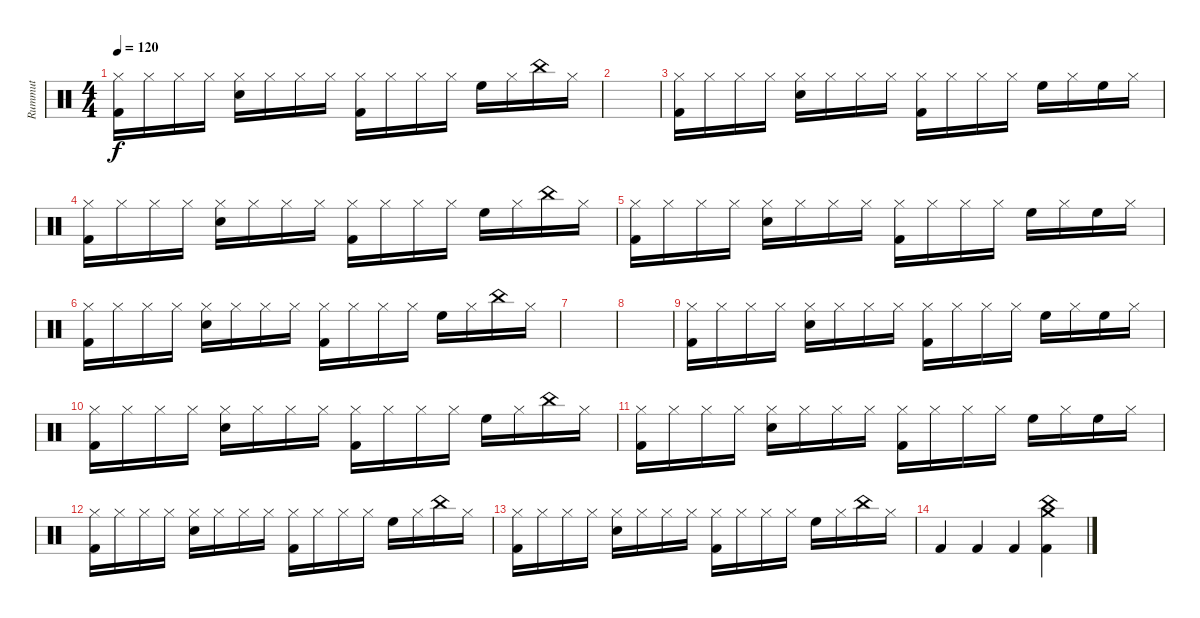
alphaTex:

\track ("Rummut" "Rummut") {instrument percussion}
\staff {score}
\articulation defaults
\ts (4 4)
\tempo 120
\clef neutral
\ks c
("Hi-Hat (closed)" "Kick (hit) 2").16{dy f} "Hi-Hat (closed)".16 "Hi-Hat (closed)".16 "Hi-Hat (closed)".16 ("Hi-Hat (closed)" "Snare (hit) 2").16 "Hi-Hat (closed)".16 "Hi-Hat (closed)".16 "Hi-Hat (closed)".16 ("Hi-Hat (closed)" "Kick (hit) 2").16 "Hi-Hat (closed)".16 "Hi-Hat (closed)".16 "Hi-Hat (closed)".16 "High Floor Tom (hit)".16 "Hi-Hat (closed)".16 "China (hit)".16 "Hi-Hat (closed)".16 |
|
("Hi-Hat (closed)" "Kick (hit) 2").16 "Hi-Hat (closed)".16 "Hi-Hat (closed)".16 "Hi-Hat (closed)".16 ("Hi-Hat (closed)" "Snare (hit) 2").16 "Hi-Hat (closed)".16 "Hi-Hat (closed)".16 "Hi-Hat (closed)".16 ("Hi-Hat (closed)" "Kick (hit) 2").16 "Hi-Hat (closed)".16 "Hi-Hat (closed)".16 "Hi-Hat (closed)".16 "High Floor Tom (hit)".16 "Hi-Hat (closed)".16 "High Floor Tom (hit)".16 "Hi-Hat (closed)".16 |
("Hi-Hat (closed)" "Kick (hit) 2").16 "Hi-Hat (closed)".16 "Hi-Hat (closed)".16 "Hi-Hat (closed)".16 ("Hi-Hat (closed)" "Snare (hit) 2").16 "Hi-Hat (closed)".16 "Hi-Hat (closed)".16 "Hi-Hat (closed)".16 ("Hi-Hat (closed)" "Kick (hit) 2").16 "Hi-Hat (closed)".16 "Hi-Hat (closed)".16 "Hi-Hat (closed)".16 "High Floor Tom (hit)".16 "Hi-Hat (closed)".16 "China (hit)".16 "Hi-Hat (closed)".16 |
("Hi-Hat (closed)" "Kick (hit) 2").16 "Hi-Hat (closed)".16 "Hi-Hat (closed)".16 "Hi-Hat (closed)".16 ("Hi-Hat (closed)" "Snare (hit) 2").16 "Hi-Hat (closed)".16 "Hi-Hat (closed)".16 "Hi-Hat (closed)".16 ("Hi-Hat (closed)" "Kick (hit) 2").16 "Hi-Hat (closed)".16 "Hi-Hat (closed)".16 "Hi-Hat (closed)".16 "High Floor Tom (hit)".16 "Hi-Hat (closed)".16 "High Floor Tom (hit)".16 "Hi-Hat (closed)".16 |
("Hi-Hat (closed)" "Kick (hit) 2").16 "Hi-Hat (closed)".16 "Hi-Hat (closed)".16 "Hi-Hat (closed)".16 ("Hi-Hat (closed)" "Snare (hit) 2").16 "Hi-Hat (closed)".16 "Hi-Hat (closed)".16 "Hi-Hat (closed)".16 ("Hi-Hat (closed)" "Kick (hit) 2").16 "Hi-Hat (closed)".16 "Hi-Hat (closed)".16 "Hi-Hat (closed)".16 "High Floor Tom (hit)".16 "Hi-Hat (closed)".16 "China (hit)".16 "Hi-Hat (closed)".16 |
|
|
("Hi-Hat (closed)" "Kick (hit) 2").16 "Hi-Hat (closed)".16 "Hi-Hat (closed)".16 "Hi-Hat (closed)".16 ("Hi-Hat (closed)" "Snare (hit) 2").16 "Hi-Hat (closed)".16 "Hi-Hat (closed)".16 "Hi-Hat (closed)".16 ("Hi-Hat (closed)" "Kick (hit) 2").16 "Hi-Hat (closed)".16 "Hi-Hat (closed)".16 "Hi-Hat (closed)".16 "High Floor Tom (hit)".16 "Hi-Hat (closed)".16 "High Floor Tom (hit)".16 "Hi-Hat (closed)".16 |
("Hi-Hat (closed)" "Kick (hit) 2").16 "Hi-Hat (closed)".16 "Hi-Hat (closed)".16 "Hi-Hat (closed)".16 ("Hi-Hat (closed)" "Snare (hit) 2").16 "Hi-Hat (closed)".16 "Hi-Hat (closed)".16 "Hi-Hat (closed)".16 ("Hi-Hat (closed)" "Kick (hit) 2").16 "Hi-Hat (closed)".16 "Hi-Hat (closed)".16 "Hi-Hat (closed)".16 "High Floor Tom (hit)".16 "Hi-Hat (closed)".16 "China (hit)".16 "Hi-Hat (closed)".16 |
("Hi-Hat (closed)" "Kick (hit) 2").16 "Hi-Hat (closed)".16 "Hi-Hat (closed)".16 "Hi-Hat (closed)".16 ("Hi-Hat (closed)" "Snare (hit) 2").16 "Hi-Hat (closed)".16 "Hi-Hat (closed)".16 "Hi-Hat (closed)".16 ("Hi-Hat (closed)" "Kick (hit) 2").16 "Hi-Hat (closed)".16 "Hi-Hat (closed)".16 "Hi-Hat (closed)".16 "High Floor Tom (hit)".16 "Hi-Hat (closed)".16 "High Floor Tom (hit)".16 "Hi-Hat (closed)".16 |
("Hi-Hat (closed)" "Kick (hit) 2").16 "Hi-Hat (closed)".16 "Hi-Hat (closed)".16 "Hi-Hat (closed)".16 ("Hi-Hat (closed)" "Snare (hit) 2").16 "Hi-Hat (closed)".16 "Hi-Hat (closed)".16 "Hi-Hat (closed)".16 ("Hi-Hat (closed)" "Kick (hit) 2").16 "Hi-Hat (closed)".16 "Hi-Hat (closed)".16 "Hi-Hat (closed)".16 "High Floor Tom (hit)".16 "Hi-Hat (closed)".16 "China (hit)".16 "Hi-Hat (closed)".16 |
("Hi-Hat (closed)" "Kick (hit) 2").16 "Hi-Hat (closed)".16 "Hi-Hat (closed)".16 "Hi-Hat (closed)".16 ("Hi-Hat (closed)" "Snare (hit) 2").16 "Hi-Hat (closed)".16 "Hi-Hat (closed)".16 "Hi-Hat (closed)".16 ("Hi-Hat (closed)" "Kick (hit) 2").16 "Hi-Hat (closed)".16 "Hi-Hat (closed)".16 "Hi-Hat (closed)".16 "High Floor Tom (hit)".16 "Hi-Hat (closed)".16 "China (hit)".16 "Hi-Hat (closed)".16 |
"Kick (hit) 2".4 "Kick (hit) 2".4 "Kick (hit) 2".4 ("China (hit)" "Kick (hit) 2" "Crash medium (hit)").4
